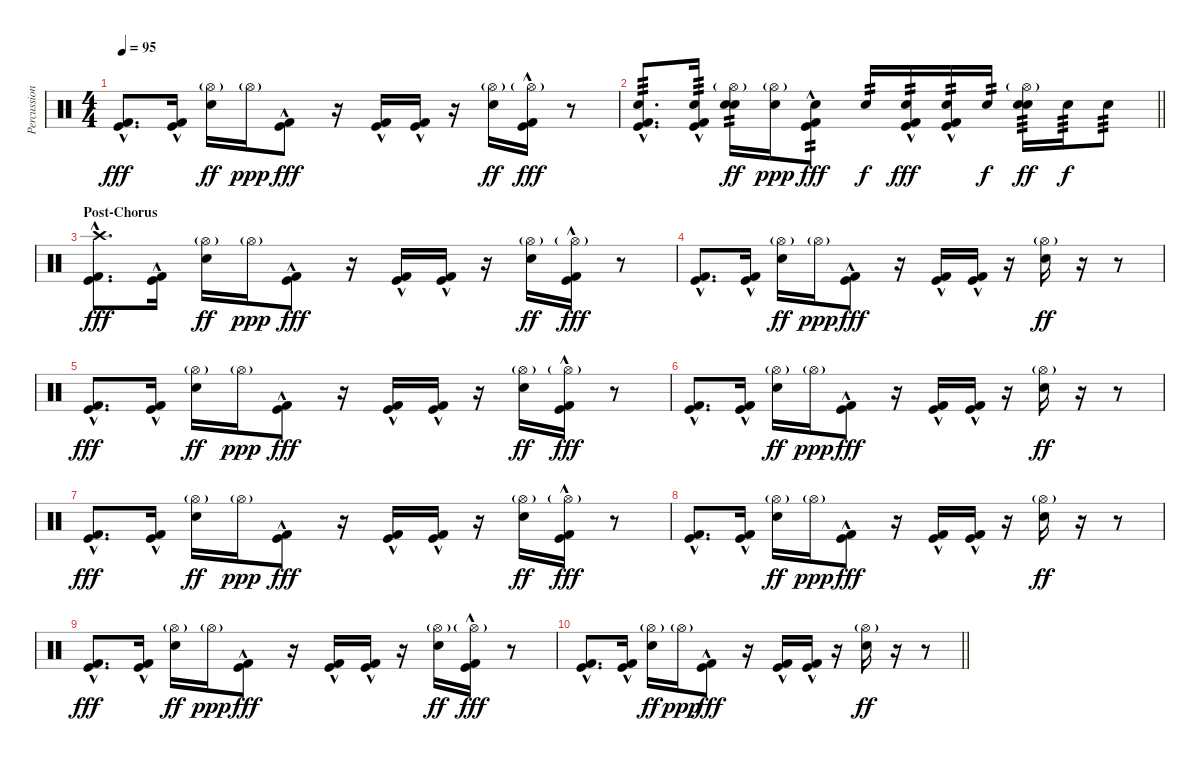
\track ("Percussion" "Percussion") {instrument percussion}
\staff {score}
\articulation defaults
\ts (4 4)
\tempo 95
\clef neutral
\ks c
("Kick (hit) 2"{hac} "Kick (hit)"{hac}).8{d dy fff} ("Kick (hit) 2"{hac} "Kick (hit)"{hac}).16 ("Hi-Hat (open)"{g} "Electric Snare (hit)").16{dy ff} "Hi-Hat (open)"{g}.16{dy ppp} ("Kick (hit) 2"{hac} "Kick (hit)"{hac}).8{dy fff} r.16 ("Kick (hit) 2"{hac} "Kick (hit)"{hac}).16 ("Kick (hit) 2"{hac} "Kick (hit)"{hac}).16 r.16 ("Hi-Hat (open)"{g} "Electric Snare (hit)").16{dy ff} ("Hi-Hat (open)"{g} "Kick (hit) 2"{hac} "Kick (hit)"{hac}).16{dy fff} r.8 |
\barLineRight lightlight
("Electric Snare (hit)" "Kick (hit) 2"{hac} "Kick (hit)"{hac}).8{d tp 3} ("Electric Snare (hit)" "Kick (hit) 2"{hac} "Kick (hit)"{hac}).16{tp 3} ("Electric Snare (hit)" "Hi-Hat (open)"{g} "Electric Snare (hit)").16{tp 2 dy ff} ("Electric Snare (hit)" "Hi-Hat (open)"{g}).16{dy ppp} ("Electric Snare (hit)" "Kick (hit) 2"{hac} "Kick (hit)"{hac}).8{tp 2 dy fff} "Electric Snare (hit)".16{tp 2 dy f} ("Electric Snare (hit)" "Kick (hit) 2"{hac} "Kick (hit)"{hac}).16{tp 2 dy fff} ("Electric Snare (hit)" "Kick (hit) 2"{hac} "Kick (hit)"{hac}).16{tp 2} "Electric Snare (hit)".16{tp 2 dy f} ("Electric Snare (hit)" "Hi-Hat (open)"{g} "Electric Snare (hit)").16{tp 3 dy ff} "Electric Snare (hit)".16{tp 3 dy f} "Electric Snare (hit)".8{tp 3} |
\section ("" "Post-Chorus")
("Crash high (hit)" "Kick (hit) 2"{hac} "Kick (hit)"{hac}).8{d dy fff} ("Kick (hit) 2"{hac} "Kick (hit)"{hac}).16 ("Hi-Hat (open)"{g} "Electric Snare (hit)").16{dy ff} "Hi-Hat (open)"{g}.16{dy ppp} ("Kick (hit) 2"{hac} "Kick (hit)"{hac}).8{dy fff} r.16 ("Kick (hit) 2"{hac} "Kick (hit)"{hac}).16 ("Kick (hit) 2"{hac} "Kick (hit)"{hac}).16 r.16 ("Hi-Hat (open)"{g} "Electric Snare (hit)").16{dy ff} ("Hi-Hat (open)"{g} "Kick (hit) 2"{hac} "Kick (hit)"{hac}).16{dy fff} r.8 |
("Kick (hit) 2"{hac} "Kick (hit)"{hac}).8{d} ("Kick (hit) 2"{hac} "Kick (hit)"{hac}).16 ("Hi-Hat (open)"{g} "Electric Snare (hit)").16{dy ff} "Hi-Hat (open)"{g}.16{dy ppp} ("Kick (hit) 2"{hac} "Kick (hit)"{hac}).8{dy fff} r.16 ("Kick (hit) 2"{hac} "Kick (hit)"{hac}).16 ("Kick (hit) 2"{hac} "Kick (hit)"{hac}).16 r.16 ("Hi-Hat (open)"{g} "Electric Snare (hit)").16{dy ff} r.16 r.8 |
("Kick (hit) 2"{hac} "Kick (hit)"{hac}).8{d dy fff} ("Kick (hit) 2"{hac} "Kick (hit)"{hac}).16 ("Hi-Hat (open)"{g} "Electric Snare (hit)").16{dy ff} "Hi-Hat (open)"{g}.16{dy ppp} ("Kick (hit) 2"{hac} "Kick (hit)"{hac}).8{dy fff} r.16 ("Kick (hit) 2"{hac} "Kick (hit)"{hac}).16 ("Kick (hit) 2"{hac} "Kick (hit)"{hac}).16 r.16 ("Hi-Hat (open)"{g} "Electric Snare (hit)").16{dy ff} ("Hi-Hat (open)"{g} "Kick (hit) 2"{hac} "Kick (hit)"{hac}).16{dy fff} r.8 |
("Kick (hit) 2"{hac} "Kick (hit)"{hac}).8{d} ("Kick (hit) 2"{hac} "Kick (hit)"{hac}).16 ("Hi-Hat (open)"{g} "Electric Snare (hit)").16{dy ff} "Hi-Hat (open)"{g}.16{dy ppp} ("Kick (hit) 2"{hac} "Kick (hit)"{hac}).8{dy fff} r.16 ("Kick (hit) 2"{hac} "Kick (hit)"{hac}).16 ("Kick (hit) 2"{hac} "Kick (hit)"{hac}).16 r.16 ("Hi-Hat (open)"{g} "Electric Snare (hit)").16{dy ff} r.16 r.8 |
("Kick (hit) 2"{hac} "Kick (hit)"{hac}).8{d dy fff} ("Kick (hit) 2"{hac} "Kick (hit)"{hac}).16 ("Hi-Hat (open)"{g} "Electric Snare (hit)").16{dy ff} "Hi-Hat (open)"{g}.16{dy ppp} ("Kick (hit) 2"{hac} "Kick (hit)"{hac}).8{dy fff} r.16 ("Kick (hit) 2"{hac} "Kick (hit)"{hac}).16 ("Kick (hit) 2"{hac} "Kick (hit)"{hac}).16 r.16 ("Hi-Hat (open)"{g} "Electric Snare (hit)").16{dy ff} ("Hi-Hat (open)"{g} "Kick (hit) 2"{hac} "Kick (hit)"{hac}).16{dy fff} r.8 |
("Kick (hit) 2"{hac} "Kick (hit)"{hac}).8{d} ("Kick (hit) 2"{hac} "Kick (hit)"{hac}).16 ("Hi-Hat (open)"{g} "Electric Snare (hit)").16{dy ff} "Hi-Hat (open)"{g}.16{dy ppp} ("Kick (hit) 2"{hac} "Kick (hit)"{hac}).8{dy fff} r.16 ("Kick (hit) 2"{hac} "Kick (hit)"{hac}).16 ("Kick (hit) 2"{hac} "Kick (hit)"{hac}).16 r.16 ("Hi-Hat (open)"{g} "Electric Snare (hit)").16{dy ff} r.16 r.8 |
("Kick (hit) 2"{hac} "Kick (hit)"{hac}).8{d dy fff} ("Kick (hit) 2"{hac} "Kick (hit)"{hac}).16 ("Hi-Hat (open)"{g} "Electric Snare (hit)").16{dy ff} "Hi-Hat (open)"{g}.16{dy ppp} ("Kick (hit) 2"{hac} "Kick (hit)"{hac}).8{dy fff} r.16 ("Kick (hit) 2"{hac} "Kick (hit)"{hac}).16 ("Kick (hit) 2"{hac} "Kick (hit)"{hac}).16 r.16 ("Hi-Hat (open)"{g} "Electric Snare (hit)").16{dy ff} ("Hi-Hat (open)"{g} "Kick (hit) 2"{hac} "Kick (hit)"{hac}).16{dy fff} r.8 |
\barLineRight lightlight
("Kick (hit) 2"{hac} "Kick (hit)"{hac}).8{d} ("Kick (hit) 2"{hac} "Kick (hit)"{hac}).16 ("Hi-Hat (open)"{g} "Electric Snare (hit)").16{dy ff} "Hi-Hat (open)"{g}.16{dy ppp} ("Kick (hit) 2"{hac} "Kick (hit)"{hac}).8{dy fff} r.16 ("Kick (hit) 2"{hac} "Kick (hit)"{hac}).16 ("Kick (hit) 2"{hac} "Kick (hit)"{hac}).16 r.16 ("Hi-Hat (open)"{g} "Electric Snare (hit)").16{dy ff} r.16 r.8
